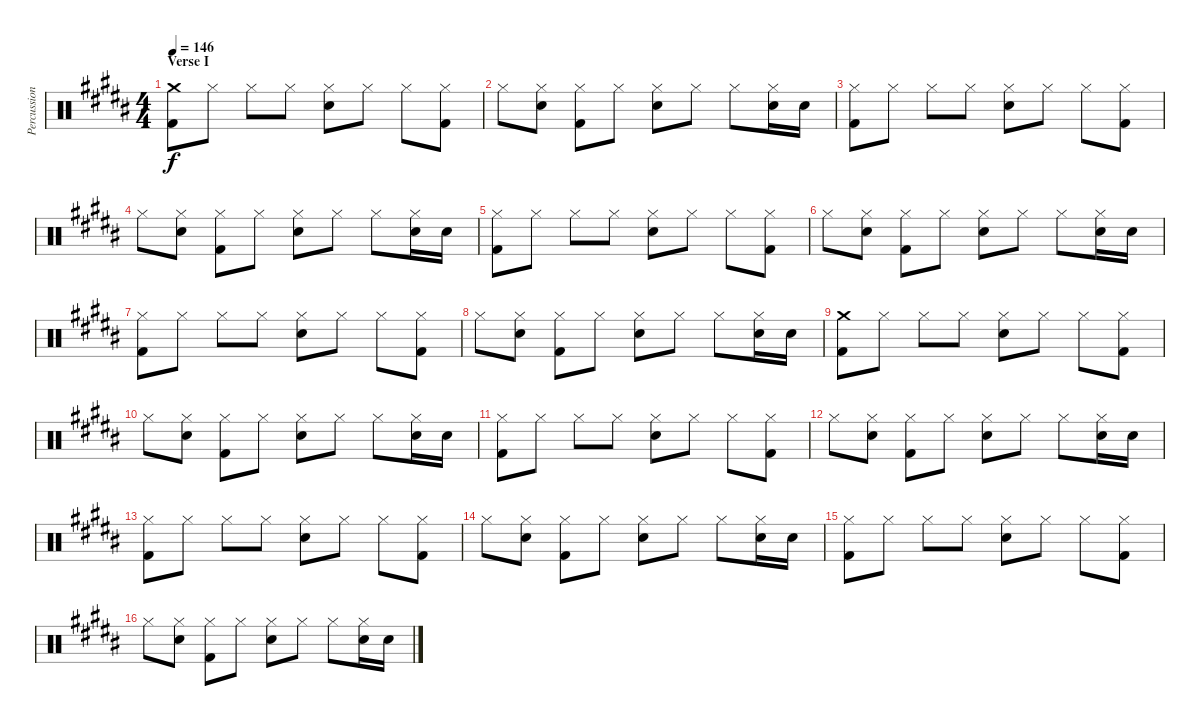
\track ("Percussion" "Percussion") {instrument percussion}
\staff {score}
\articulation defaults
\ts (4 4)
\section ("" "Verse I")
\tempo 146
\clef neutral
\ks b
("Crash medium (hit)" "Kick (hit) 2").8{dy f} "Hi-Hat (closed)".8 "Hi-Hat (closed)".8 "Hi-Hat (closed)".8 ("Hi-Hat (closed)" "Snare (hit) 2").8 "Hi-Hat (closed)".8 "Hi-Hat (closed)".8 ("Hi-Hat (closed)" "Kick (hit) 2").8 |
"Hi-Hat (closed)".8 ("Hi-Hat (closed)" "Snare (hit) 2").8 ("Hi-Hat (closed)" "Kick (hit) 2").8 "Hi-Hat (closed)".8 ("Hi-Hat (closed)" "Snare (hit) 2").8 "Hi-Hat (closed)".8 "Hi-Hat (closed)".8 ("Hi-Hat (closed)" "Snare (hit) 2").16 "Snare (hit) 2".16 |
("Hi-Hat (closed)" "Kick (hit) 2").8 "Hi-Hat (closed)".8 "Hi-Hat (closed)".8 "Hi-Hat (closed)".8 ("Hi-Hat (closed)" "Snare (hit) 2").8 "Hi-Hat (closed)".8 "Hi-Hat (closed)".8 ("Hi-Hat (closed)" "Kick (hit) 2").8 |
"Hi-Hat (closed)".8 ("Hi-Hat (closed)" "Snare (hit) 2").8 ("Hi-Hat (closed)" "Kick (hit) 2").8 "Hi-Hat (closed)".8 ("Hi-Hat (closed)" "Snare (hit) 2").8 "Hi-Hat (closed)".8 "Hi-Hat (closed)".8 ("Hi-Hat (closed)" "Snare (hit) 2").16 "Snare (hit) 2".16 |
("Hi-Hat (closed)" "Kick (hit) 2").8 "Hi-Hat (closed)".8 "Hi-Hat (closed)".8 "Hi-Hat (closed)".8 ("Hi-Hat (closed)" "Snare (hit) 2").8 "Hi-Hat (closed)".8 "Hi-Hat (closed)".8 ("Hi-Hat (closed)" "Kick (hit) 2").8 |
"Hi-Hat (closed)".8 ("Hi-Hat (closed)" "Snare (hit) 2").8 ("Hi-Hat (closed)" "Kick (hit) 2").8 "Hi-Hat (closed)".8 ("Hi-Hat (closed)" "Snare (hit) 2").8 "Hi-Hat (closed)".8 "Hi-Hat (closed)".8 ("Hi-Hat (closed)" "Snare (hit) 2").16 "Snare (hit) 2".16 |
("Hi-Hat (closed)" "Kick (hit) 2").8 "Hi-Hat (closed)".8 "Hi-Hat (closed)".8 "Hi-Hat (closed)".8 ("Hi-Hat (closed)" "Snare (hit) 2").8 "Hi-Hat (closed)".8 "Hi-Hat (closed)".8 ("Hi-Hat (closed)" "Kick (hit) 2").8 |
"Hi-Hat (closed)".8 ("Hi-Hat (closed)" "Snare (hit) 2").8 ("Hi-Hat (closed)" "Kick (hit) 2").8 "Hi-Hat (closed)".8 ("Hi-Hat (closed)" "Snare (hit) 2").8 "Hi-Hat (closed)".8 "Hi-Hat (closed)".8 ("Hi-Hat (closed)" "Snare (hit) 2").16 "Snare (hit) 2".16 |
("Crash medium (hit)" "Kick (hit) 2").8 "Hi-Hat (closed)".8 "Hi-Hat (closed)".8 "Hi-Hat (closed)".8 ("Hi-Hat (closed)" "Snare (hit) 2").8 "Hi-Hat (closed)".8 "Hi-Hat (closed)".8 ("Hi-Hat (closed)" "Kick (hit) 2").8 |
"Hi-Hat (closed)".8 ("Hi-Hat (closed)" "Snare (hit) 2").8 ("Hi-Hat (closed)" "Kick (hit) 2").8 "Hi-Hat (closed)".8 ("Hi-Hat (closed)" "Snare (hit) 2").8 "Hi-Hat (closed)".8 "Hi-Hat (closed)".8 ("Hi-Hat (closed)" "Snare (hit) 2").16 "Snare (hit) 2".16 |
("Hi-Hat (closed)" "Kick (hit) 2").8 "Hi-Hat (closed)".8 "Hi-Hat (closed)".8 "Hi-Hat (closed)".8 ("Hi-Hat (closed)" "Snare (hit) 2").8 "Hi-Hat (closed)".8 "Hi-Hat (closed)".8 ("Hi-Hat (closed)" "Kick (hit) 2").8 |
"Hi-Hat (closed)".8 ("Hi-Hat (closed)" "Snare (hit) 2").8 ("Hi-Hat (closed)" "Kick (hit) 2").8 "Hi-Hat (closed)".8 ("Hi-Hat (closed)" "Snare (hit) 2").8 "Hi-Hat (closed)".8 "Hi-Hat (closed)".8 ("Hi-Hat (closed)" "Snare (hit) 2").16 "Snare (hit) 2".16 |
("Hi-Hat (closed)" "Kick (hit) 2").8 "Hi-Hat (closed)".8 "Hi-Hat (closed)".8 "Hi-Hat (closed)".8 ("Hi-Hat (closed)" "Snare (hit) 2").8 "Hi-Hat (closed)".8 "Hi-Hat (closed)".8 ("Hi-Hat (closed)" "Kick (hit) 2").8 |
"Hi-Hat (closed)".8 ("Hi-Hat (closed)" "Snare (hit) 2").8 ("Hi-Hat (closed)" "Kick (hit) 2").8 "Hi-Hat (closed)".8 ("Hi-Hat (closed)" "Snare (hit) 2").8 "Hi-Hat (closed)".8 "Hi-Hat (closed)".8 ("Hi-Hat (closed)" "Snare (hit) 2").16 "Snare (hit) 2".16 |
("Hi-Hat (closed)" "Kick (hit) 2").8 "Hi-Hat (closed)".8 "Hi-Hat (closed)".8 "Hi-Hat (closed)".8 ("Hi-Hat (closed)" "Snare (hit) 2").8 "Hi-Hat (closed)".8 "Hi-Hat (closed)".8 ("Hi-Hat (closed)" "Kick (hit) 2").8 |
"Hi-Hat (closed)".8 ("Hi-Hat (closed)" "Snare (hit) 2").8 ("Hi-Hat (closed)" "Kick (hit) 2").8 "Hi-Hat (closed)".8 ("Hi-Hat (closed)" "Snare (hit) 2").8 "Hi-Hat (closed)".8 "Hi-Hat (closed)".8 ("Hi-Hat (closed)" "Snare (hit) 2").16 "Snare (hit) 2".16
